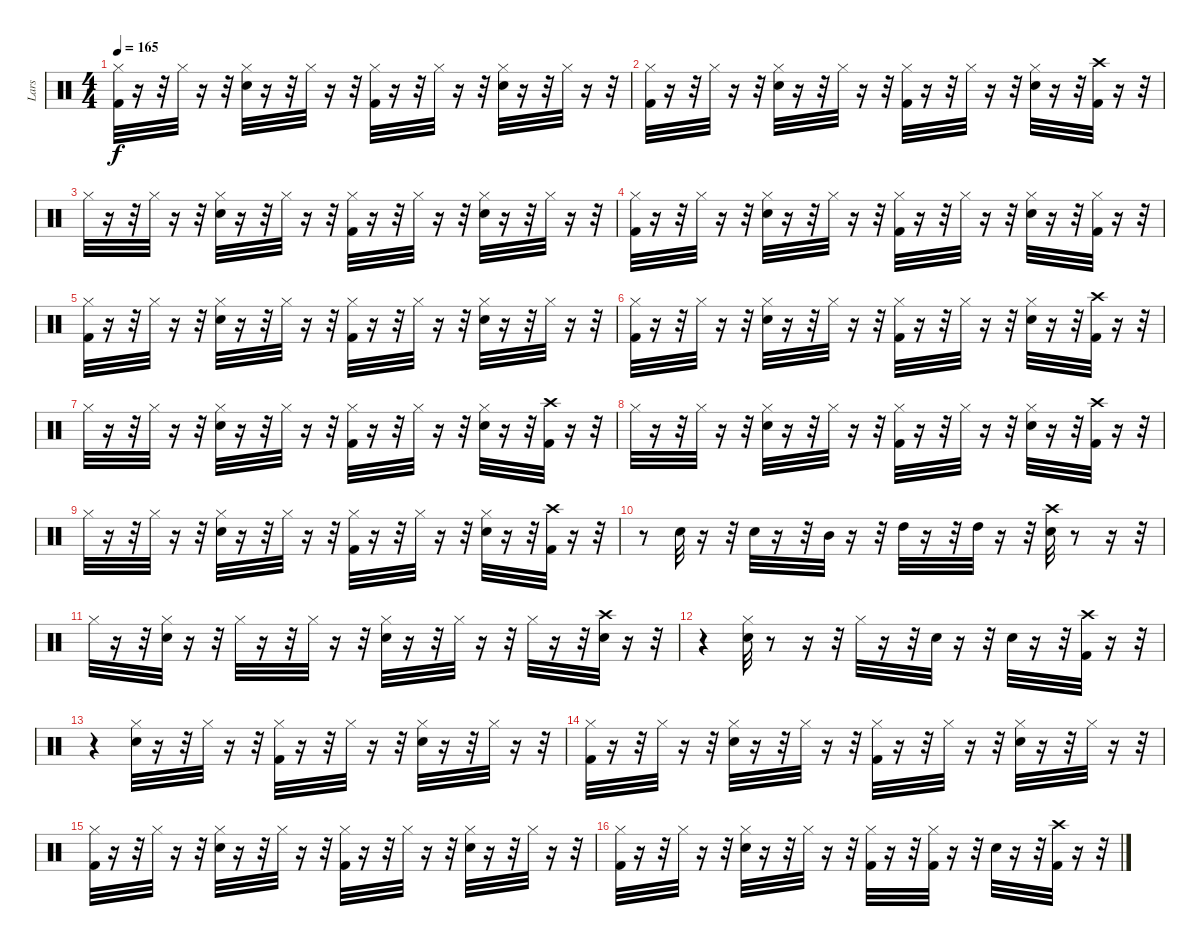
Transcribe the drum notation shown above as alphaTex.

\track ("Lars" "Lars") {instrument percussion}
\staff {score}
\articulation defaults
\ts (4 4)
\tempo 165
\clef neutral
\ks c
("Hi-Hat (closed)" "Kick (hit) 2").32{dy f} r.16 r.32 "Hi-Hat (closed)".32 r.16 r.32 ("Snare (hit) 2" "Hi-Hat (closed)").32 r.16 r.32 "Hi-Hat (closed)".32 r.16 r.32 ("Hi-Hat (closed)" "Kick (hit) 2").32 r.16 r.32 "Hi-Hat (closed)".32 r.16 r.32 ("Snare (hit) 2" "Hi-Hat (closed)").32 r.16 r.32 "Hi-Hat (closed)".32 r.16 r.32 |
("Hi-Hat (closed)" "Kick (hit) 2").32 r.16 r.32 "Hi-Hat (closed)".32 r.16 r.32 ("Snare (hit) 2" "Hi-Hat (closed)").32 r.16 r.32 "Hi-Hat (closed)".32 r.16 r.32 ("Hi-Hat (closed)" "Kick (hit) 2").32 r.16 r.32 "Hi-Hat (closed)".32 r.16 r.32 ("Snare (hit) 2" "Hi-Hat (closed)").32 r.16 r.32 ("Crash high (hit)" "Kick (hit) 2").32 r.16 r.32 |
"Hi-Hat (closed)".32 r.16 r.32 "Hi-Hat (closed)".32 r.16 r.32 ("Snare (hit) 2" "Hi-Hat (closed)").32 r.16 r.32 "Hi-Hat (closed)".32 r.16 r.32 ("Hi-Hat (closed)" "Kick (hit) 2").32 r.16 r.32 "Hi-Hat (closed)".32 r.16 r.32 ("Snare (hit) 2" "Hi-Hat (closed)").32 r.16 r.32 "Hi-Hat (closed)".32 r.16 r.32 |
("Hi-Hat (closed)" "Kick (hit) 2").32 r.16 r.32 "Hi-Hat (closed)".32 r.16 r.32 ("Snare (hit) 2" "Hi-Hat (closed)").32 r.16 r.32 "Hi-Hat (closed)".32 r.16 r.32 ("Hi-Hat (closed)" "Kick (hit) 2").32 r.16 r.32 "Hi-Hat (closed)".32 r.16 r.32 ("Snare (hit) 2" "Hi-Hat (closed)").32 r.16 r.32 ("Kick (hit) 2" "Hi-Hat (closed)").32 r.16 r.32 |
("Hi-Hat (closed)" "Kick (hit) 2").32 r.16 r.32 "Hi-Hat (closed)".32 r.16 r.32 ("Snare (hit) 2" "Hi-Hat (closed)").32 r.16 r.32 "Hi-Hat (closed)".32 r.16 r.32 ("Hi-Hat (closed)" "Kick (hit) 2").32 r.16 r.32 "Hi-Hat (closed)".32 r.16 r.32 ("Snare (hit) 2" "Hi-Hat (closed)").32 r.16 r.32 "Hi-Hat (closed)".32 r.16 r.32 |
("Hi-Hat (closed)" "Kick (hit) 2").32 r.16 r.32 "Hi-Hat (closed)".32 r.16 r.32 ("Snare (hit) 2" "Hi-Hat (closed)").32 r.16 r.32 "Hi-Hat (closed)".32 r.16 r.32 ("Hi-Hat (closed)" "Kick (hit) 2").32 r.16 r.32 "Hi-Hat (closed)".32 r.16 r.32 ("Snare (hit) 2" "Hi-Hat (closed)").32 r.16 r.32 ("Crash high (hit)" "Kick (hit) 2").32 r.16 r.32 |
"Hi-Hat (closed)".32 r.16 r.32 "Hi-Hat (closed)".32 r.16 r.32 ("Snare (hit) 2" "Hi-Hat (closed)").32 r.16 r.32 "Hi-Hat (closed)".32 r.16 r.32 ("Hi-Hat (closed)" "Kick (hit) 2").32 r.16 r.32 "Hi-Hat (closed)".32 r.16 r.32 ("Snare (hit) 2" "Hi-Hat (closed)").32 r.16 r.32 ("Crash high (hit)" "Kick (hit) 2").32 r.16 r.32 |
"Hi-Hat (closed)".32 r.16 r.32 "Hi-Hat (closed)".32 r.16 r.32 ("Snare (hit) 2" "Hi-Hat (closed)").32 r.16 r.32 "Hi-Hat (closed)".32 r.16 r.32 ("Hi-Hat (closed)" "Kick (hit) 2").32 r.16 r.32 "Hi-Hat (closed)".32 r.16 r.32 ("Snare (hit) 2" "Hi-Hat (closed)").32 r.16 r.32 ("Crash high (hit)" "Kick (hit) 2").32 r.16 r.32 |
"Hi-Hat (closed)".32 r.16 r.32 "Hi-Hat (closed)".32 r.16 r.32 ("Snare (hit) 2" "Hi-Hat (closed)").32 r.16 r.32 "Hi-Hat (closed)".32 r.16 r.32 ("Hi-Hat (closed)" "Kick (hit) 2").32 r.16 r.32 "Hi-Hat (closed)".32 r.16 r.32 ("Snare (hit) 2" "Hi-Hat (closed)").32 r.16 r.32 ("Crash high (hit)" "Kick (hit) 2").32 r.16 r.32 |
r.8 "Snare (hit) 2".32 r.16 r.32 "Snare (hit) 2".32 r.16 r.32 "Mid Tom (hit)".32 r.16 r.32 "High Tom (hit)".32 r.16 r.32 "High Tom (hit)".32 r.16 r.32 ("Crash high (hit)" "Snare (hit) 2").32 r.8 r.16 r.32 |
"Hi-Hat (closed)".32 r.16 r.32 ("Snare (hit) 2" "Hi-Hat (closed)").32 r.16 r.32 "Hi-Hat (closed)".32 r.16 r.32 "Hi-Hat (closed)".32 r.16 r.32 ("Snare (hit) 2" "Hi-Hat (closed)").32 r.16 r.32 "Hi-Hat (closed)".32 r.16 r.32 "Hi-Hat (closed)".32 r.16 r.32 ("Snare (hit) 2" "Crash high (hit)").32 r.16 r.32 |
r.4 ("Hi-Hat (closed)" "Snare (hit) 2").32 r.8 r.16 r.32 "Hi-Hat (closed)".32 r.16 r.32 "Snare (hit) 2".32 r.16 r.32 "Snare (hit) 2".32 r.16 r.32 ("Crash high (hit)" "Kick (hit) 2").32 r.16 r.32 |
r.4 ("Hi-Hat (closed)" "Snare (hit) 2").32 r.16 r.32 "Hi-Hat (closed)".32 r.16 r.32 ("Kick (hit) 2" "Hi-Hat (closed)").32 r.16 r.32 "Hi-Hat (closed)".32 r.16 r.32 ("Snare (hit) 2" "Hi-Hat (closed)").32 r.16 r.32 "Hi-Hat (closed)".32 r.16 r.32 |
("Kick (hit) 2" "Hi-Hat (closed)").32 r.16 r.32 "Hi-Hat (closed)".32 r.16 r.32 ("Snare (hit) 2" "Hi-Hat (closed)").32 r.16 r.32 "Hi-Hat (closed)".32 r.16 r.32 ("Hi-Hat (closed)" "Kick (hit) 2").32 r.16 r.32 "Hi-Hat (closed)".32 r.16 r.32 ("Hi-Hat (closed)" "Snare (hit) 2").32 r.16 r.32 "Hi-Hat (closed)".32 r.16 r.32 |
("Kick (hit) 2" "Hi-Hat (closed)").32 r.16 r.32 "Hi-Hat (closed)".32 r.16 r.32 ("Snare (hit) 2" "Hi-Hat (closed)").32 r.16 r.32 "Hi-Hat (closed)".32 r.16 r.32 ("Hi-Hat (closed)" "Kick (hit) 2").32 r.16 r.32 "Hi-Hat (closed)".32 r.16 r.32 ("Hi-Hat (closed)" "Snare (hit) 2").32 r.16 r.32 "Hi-Hat (closed)".32 r.16 r.32 |
("Hi-Hat (closed)" "Kick (hit) 2").32 r.16 r.32 "Hi-Hat (closed)".32 r.16 r.32 ("Snare (hit) 2" "Hi-Hat (closed)").32 r.16 r.32 "Hi-Hat (closed)".32 r.16 r.32 ("Hi-Hat (closed)" "Kick (hit) 2").32 r.16 r.32 ("Hi-Hat (closed)" "Kick (hit) 2").32 r.16 r.32 "Snare (hit) 2".32 r.16 r.32 ("Crash high (hit)" "Kick (hit) 2").32 r.16 r.32
